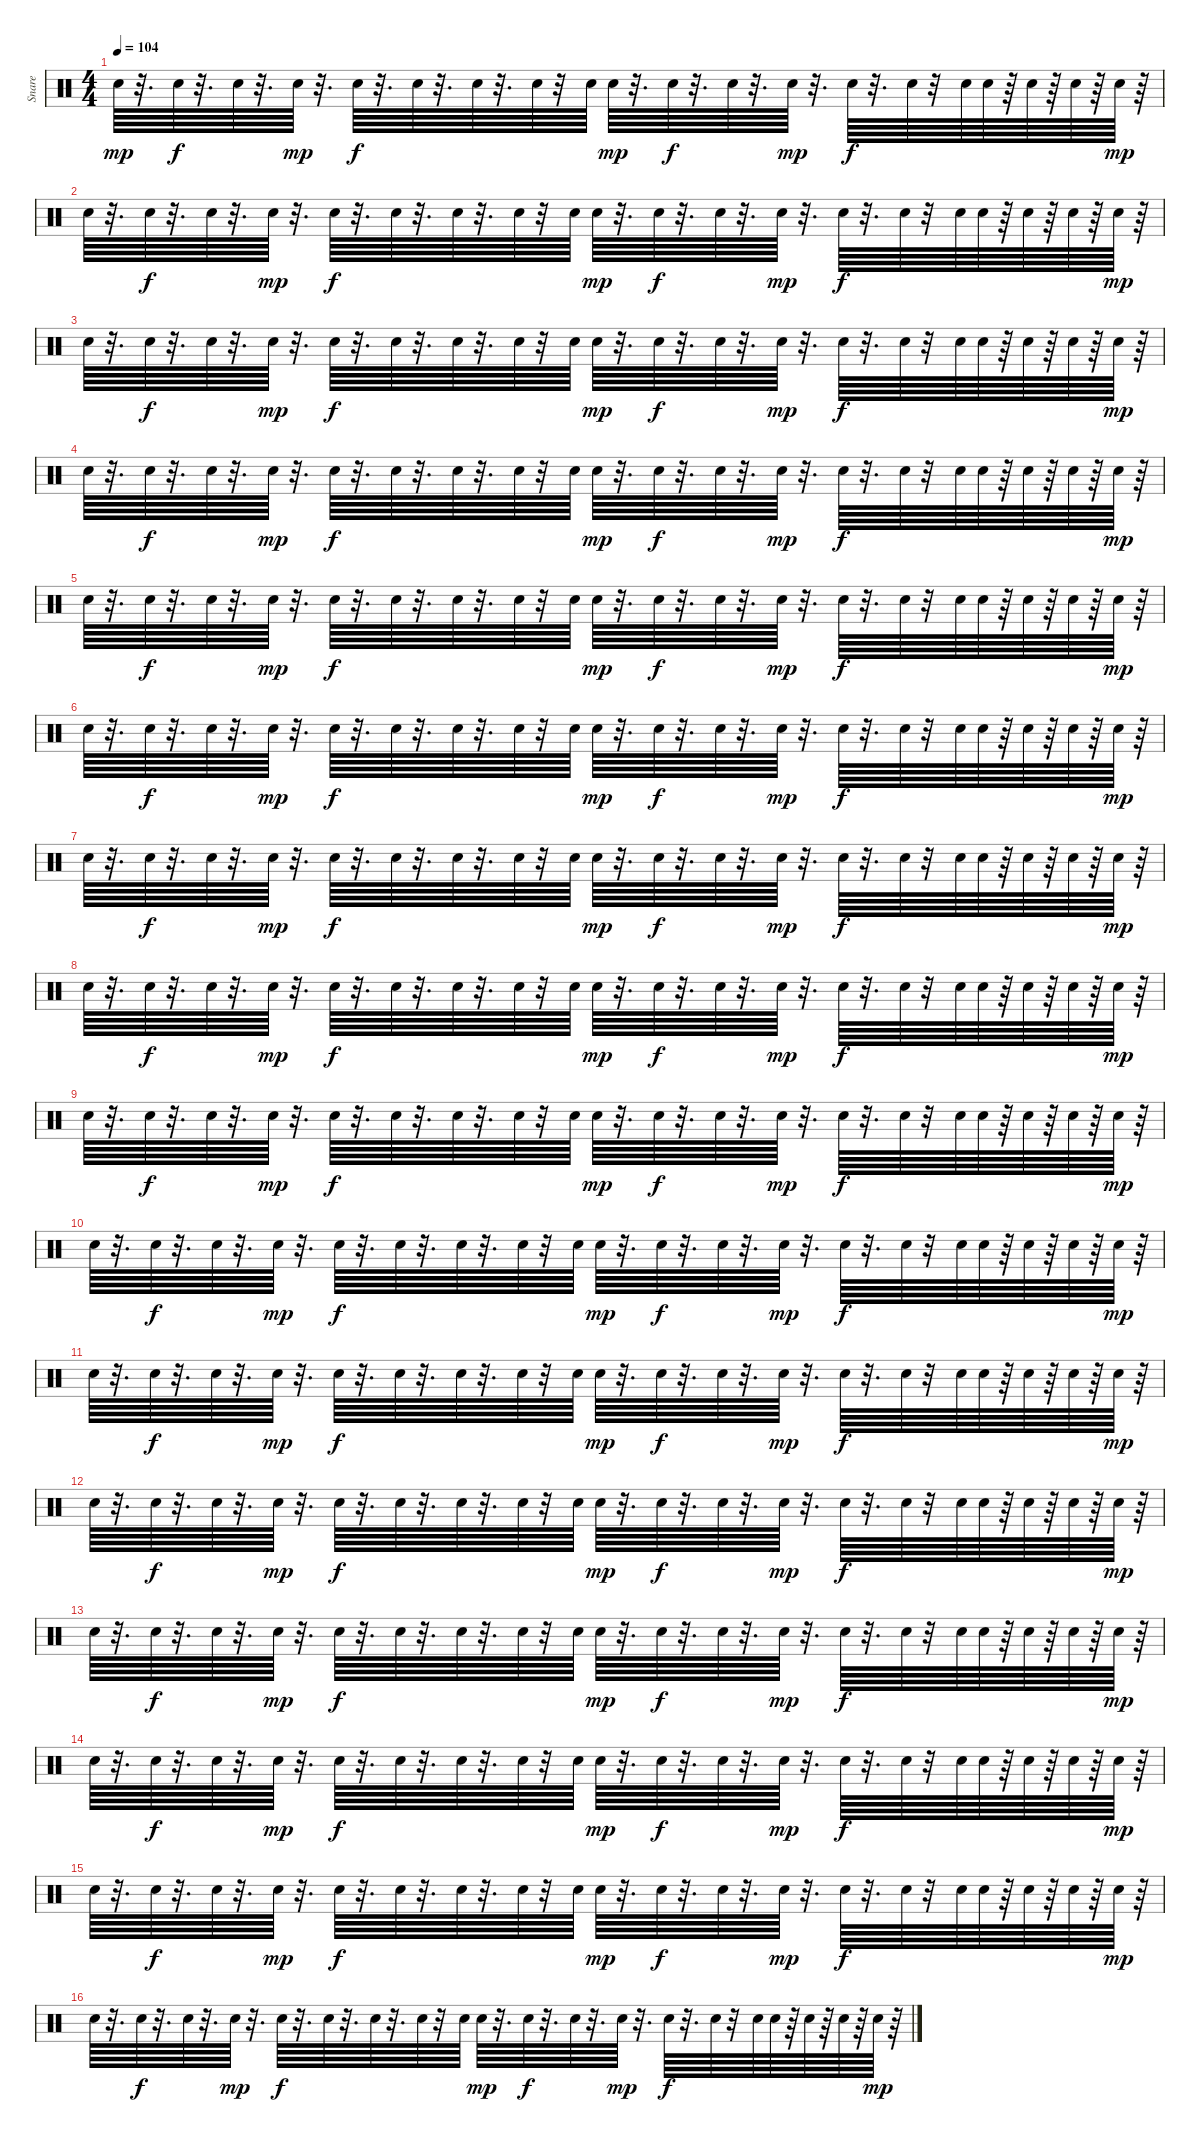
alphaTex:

\track ("Snare" "Snare") {instrument percussion}
\staff {score}
\articulation defaults
\ts (4 4)
\tempo 104
\clef neutral
\ks c "Snare (hit) 2".64{dy mp}
r.32{d} "Snare (hit) 2".64{dy f} r.32{d} "Snare (hit) 2".64 r.32{d} "Snare (hit) 2".64{dy mp} r.32{d} "Snare (hit) 2".64{dy f} r.32{d} "Snare (hit) 2".64 r.32{d} "Snare (hit) 2".64 r.32{d} "Snare (hit) 2".64 r.32 "Snare (hit) 2".64 "Snare (hit) 2".64{dy mp} r.32{d} "Snare (hit) 2".64{dy f} r.32{d} "Snare (hit) 2".64 r.32{d} "Snare (hit) 2".64{dy mp} r.32{d} "Snare (hit) 2".64{dy f} r.32{d} "Snare (hit) 2".64 r.32 "Snare (hit) 2".64 "Snare (hit) 2".64 r.64 "Snare (hit) 2".64 r.64 "Snare (hit) 2".64 r.64 "Snare (hit) 2".64{dy mp} r.64 |
"Snare (hit) 2".64 r.32{d} "Snare (hit) 2".64{dy f} r.32{d} "Snare (hit) 2".64 r.32{d} "Snare (hit) 2".64{dy mp} r.32{d} "Snare (hit) 2".64{dy f} r.32{d} "Snare (hit) 2".64 r.32{d} "Snare (hit) 2".64 r.32{d} "Snare (hit) 2".64 r.32 "Snare (hit) 2".64 "Snare (hit) 2".64{dy mp} r.32{d} "Snare (hit) 2".64{dy f} r.32{d} "Snare (hit) 2".64 r.32{d} "Snare (hit) 2".64{dy mp} r.32{d} "Snare (hit) 2".64{dy f} r.32{d} "Snare (hit) 2".64 r.32 "Snare (hit) 2".64 "Snare (hit) 2".64 r.64 "Snare (hit) 2".64 r.64 "Snare (hit) 2".64 r.64 "Snare (hit) 2".64{dy mp} r.64 |
"Snare (hit) 2".64 r.32{d} "Snare (hit) 2".64{dy f} r.32{d} "Snare (hit) 2".64 r.32{d} "Snare (hit) 2".64{dy mp} r.32{d} "Snare (hit) 2".64{dy f} r.32{d} "Snare (hit) 2".64 r.32{d} "Snare (hit) 2".64 r.32{d} "Snare (hit) 2".64 r.32 "Snare (hit) 2".64 "Snare (hit) 2".64{dy mp} r.32{d} "Snare (hit) 2".64{dy f} r.32{d} "Snare (hit) 2".64 r.32{d} "Snare (hit) 2".64{dy mp} r.32{d} "Snare (hit) 2".64{dy f} r.32{d} "Snare (hit) 2".64 r.32 "Snare (hit) 2".64 "Snare (hit) 2".64 r.64 "Snare (hit) 2".64 r.64 "Snare (hit) 2".64 r.64 "Snare (hit) 2".64{dy mp} r.64 |
"Snare (hit) 2".64 r.32{d} "Snare (hit) 2".64{dy f} r.32{d} "Snare (hit) 2".64 r.32{d} "Snare (hit) 2".64{dy mp} r.32{d} "Snare (hit) 2".64{dy f} r.32{d} "Snare (hit) 2".64 r.32{d} "Snare (hit) 2".64 r.32{d} "Snare (hit) 2".64 r.32 "Snare (hit) 2".64 "Snare (hit) 2".64{dy mp} r.32{d} "Snare (hit) 2".64{dy f} r.32{d} "Snare (hit) 2".64 r.32{d} "Snare (hit) 2".64{dy mp} r.32{d} "Snare (hit) 2".64{dy f} r.32{d} "Snare (hit) 2".64 r.32 "Snare (hit) 2".64 "Snare (hit) 2".64 r.64 "Snare (hit) 2".64 r.64 "Snare (hit) 2".64 r.64 "Snare (hit) 2".64{dy mp} r.64 |
"Snare (hit) 2".64 r.32{d} "Snare (hit) 2".64{dy f} r.32{d} "Snare (hit) 2".64 r.32{d} "Snare (hit) 2".64{dy mp} r.32{d} "Snare (hit) 2".64{dy f} r.32{d} "Snare (hit) 2".64 r.32{d} "Snare (hit) 2".64 r.32{d} "Snare (hit) 2".64 r.32 "Snare (hit) 2".64 "Snare (hit) 2".64{dy mp} r.32{d} "Snare (hit) 2".64{dy f} r.32{d} "Snare (hit) 2".64 r.32{d} "Snare (hit) 2".64{dy mp} r.32{d} "Snare (hit) 2".64{dy f} r.32{d} "Snare (hit) 2".64 r.32 "Snare (hit) 2".64 "Snare (hit) 2".64 r.64 "Snare (hit) 2".64 r.64 "Snare (hit) 2".64 r.64 "Snare (hit) 2".64{dy mp} r.64 |
"Snare (hit) 2".64 r.32{d} "Snare (hit) 2".64{dy f} r.32{d} "Snare (hit) 2".64 r.32{d} "Snare (hit) 2".64{dy mp} r.32{d} "Snare (hit) 2".64{dy f} r.32{d} "Snare (hit) 2".64 r.32{d} "Snare (hit) 2".64 r.32{d} "Snare (hit) 2".64 r.32 "Snare (hit) 2".64 "Snare (hit) 2".64{dy mp} r.32{d} "Snare (hit) 2".64{dy f} r.32{d} "Snare (hit) 2".64 r.32{d} "Snare (hit) 2".64{dy mp} r.32{d} "Snare (hit) 2".64{dy f} r.32{d} "Snare (hit) 2".64 r.32 "Snare (hit) 2".64 "Snare (hit) 2".64 r.64 "Snare (hit) 2".64 r.64 "Snare (hit) 2".64 r.64 "Snare (hit) 2".64{dy mp} r.64 |
"Snare (hit) 2".64 r.32{d} "Snare (hit) 2".64{dy f} r.32{d} "Snare (hit) 2".64 r.32{d} "Snare (hit) 2".64{dy mp} r.32{d} "Snare (hit) 2".64{dy f} r.32{d} "Snare (hit) 2".64 r.32{d} "Snare (hit) 2".64 r.32{d} "Snare (hit) 2".64 r.32 "Snare (hit) 2".64 "Snare (hit) 2".64{dy mp} r.32{d} "Snare (hit) 2".64{dy f} r.32{d} "Snare (hit) 2".64 r.32{d} "Snare (hit) 2".64{dy mp} r.32{d} "Snare (hit) 2".64{dy f} r.32{d} "Snare (hit) 2".64 r.32 "Snare (hit) 2".64 "Snare (hit) 2".64 r.64 "Snare (hit) 2".64 r.64 "Snare (hit) 2".64 r.64 "Snare (hit) 2".64{dy mp} r.64 |
"Snare (hit) 2".64 r.32{d} "Snare (hit) 2".64{dy f} r.32{d} "Snare (hit) 2".64 r.32{d} "Snare (hit) 2".64{dy mp} r.32{d} "Snare (hit) 2".64{dy f} r.32{d} "Snare (hit) 2".64 r.32{d} "Snare (hit) 2".64 r.32{d} "Snare (hit) 2".64 r.32 "Snare (hit) 2".64 "Snare (hit) 2".64{dy mp} r.32{d} "Snare (hit) 2".64{dy f} r.32{d} "Snare (hit) 2".64 r.32{d} "Snare (hit) 2".64{dy mp} r.32{d} "Snare (hit) 2".64{dy f} r.32{d} "Snare (hit) 2".64 r.32 "Snare (hit) 2".64 "Snare (hit) 2".64 r.64 "Snare (hit) 2".64 r.64 "Snare (hit) 2".64 r.64 "Snare (hit) 2".64{dy mp} r.64 |
"Snare (hit) 2".64 r.32{d} "Snare (hit) 2".64{dy f} r.32{d} "Snare (hit) 2".64 r.32{d} "Snare (hit) 2".64{dy mp} r.32{d} "Snare (hit) 2".64{dy f} r.32{d} "Snare (hit) 2".64 r.32{d} "Snare (hit) 2".64 r.32{d} "Snare (hit) 2".64 r.32 "Snare (hit) 2".64 "Snare (hit) 2".64{dy mp} r.32{d} "Snare (hit) 2".64{dy f} r.32{d} "Snare (hit) 2".64 r.32{d} "Snare (hit) 2".64{dy mp} r.32{d} "Snare (hit) 2".64{dy f} r.32{d} "Snare (hit) 2".64 r.32 "Snare (hit) 2".64 "Snare (hit) 2".64 r.64 "Snare (hit) 2".64 r.64 "Snare (hit) 2".64 r.64 "Snare (hit) 2".64{dy mp} r.64 |
"Snare (hit) 2".64 r.32{d} "Snare (hit) 2".64{dy f} r.32{d} "Snare (hit) 2".64 r.32{d} "Snare (hit) 2".64{dy mp} r.32{d} "Snare (hit) 2".64{dy f} r.32{d} "Snare (hit) 2".64 r.32{d} "Snare (hit) 2".64 r.32{d} "Snare (hit) 2".64 r.32 "Snare (hit) 2".64 "Snare (hit) 2".64{dy mp} r.32{d} "Snare (hit) 2".64{dy f} r.32{d} "Snare (hit) 2".64 r.32{d} "Snare (hit) 2".64{dy mp} r.32{d} "Snare (hit) 2".64{dy f} r.32{d} "Snare (hit) 2".64 r.32 "Snare (hit) 2".64 "Snare (hit) 2".64 r.64 "Snare (hit) 2".64 r.64 "Snare (hit) 2".64 r.64 "Snare (hit) 2".64{dy mp} r.64 |
"Snare (hit) 2".64 r.32{d} "Snare (hit) 2".64{dy f} r.32{d} "Snare (hit) 2".64 r.32{d} "Snare (hit) 2".64{dy mp} r.32{d} "Snare (hit) 2".64{dy f} r.32{d} "Snare (hit) 2".64 r.32{d} "Snare (hit) 2".64 r.32{d} "Snare (hit) 2".64 r.32 "Snare (hit) 2".64 "Snare (hit) 2".64{dy mp} r.32{d} "Snare (hit) 2".64{dy f} r.32{d} "Snare (hit) 2".64 r.32{d} "Snare (hit) 2".64{dy mp} r.32{d} "Snare (hit) 2".64{dy f} r.32{d} "Snare (hit) 2".64 r.32 "Snare (hit) 2".64 "Snare (hit) 2".64 r.64 "Snare (hit) 2".64 r.64 "Snare (hit) 2".64 r.64 "Snare (hit) 2".64{dy mp} r.64 |
"Snare (hit) 2".64 r.32{d} "Snare (hit) 2".64{dy f} r.32{d} "Snare (hit) 2".64 r.32{d} "Snare (hit) 2".64{dy mp} r.32{d} "Snare (hit) 2".64{dy f} r.32{d} "Snare (hit) 2".64 r.32{d} "Snare (hit) 2".64 r.32{d} "Snare (hit) 2".64 r.32 "Snare (hit) 2".64 "Snare (hit) 2".64{dy mp} r.32{d} "Snare (hit) 2".64{dy f} r.32{d} "Snare (hit) 2".64 r.32{d} "Snare (hit) 2".64{dy mp} r.32{d} "Snare (hit) 2".64{dy f} r.32{d} "Snare (hit) 2".64 r.32 "Snare (hit) 2".64 "Snare (hit) 2".64 r.64 "Snare (hit) 2".64 r.64 "Snare (hit) 2".64 r.64 "Snare (hit) 2".64{dy mp} r.64 |
"Snare (hit) 2".64 r.32{d} "Snare (hit) 2".64{dy f} r.32{d} "Snare (hit) 2".64 r.32{d} "Snare (hit) 2".64{dy mp} r.32{d} "Snare (hit) 2".64{dy f} r.32{d} "Snare (hit) 2".64 r.32{d} "Snare (hit) 2".64 r.32{d} "Snare (hit) 2".64 r.32 "Snare (hit) 2".64 "Snare (hit) 2".64{dy mp} r.32{d} "Snare (hit) 2".64{dy f} r.32{d} "Snare (hit) 2".64 r.32{d} "Snare (hit) 2".64{dy mp} r.32{d} "Snare (hit) 2".64{dy f} r.32{d} "Snare (hit) 2".64 r.32 "Snare (hit) 2".64 "Snare (hit) 2".64 r.64 "Snare (hit) 2".64 r.64 "Snare (hit) 2".64 r.64 "Snare (hit) 2".64{dy mp} r.64 |
"Snare (hit) 2".64 r.32{d} "Snare (hit) 2".64{dy f} r.32{d} "Snare (hit) 2".64 r.32{d} "Snare (hit) 2".64{dy mp} r.32{d} "Snare (hit) 2".64{dy f} r.32{d} "Snare (hit) 2".64 r.32{d} "Snare (hit) 2".64 r.32{d} "Snare (hit) 2".64 r.32 "Snare (hit) 2".64 "Snare (hit) 2".64{dy mp} r.32{d} "Snare (hit) 2".64{dy f} r.32{d} "Snare (hit) 2".64 r.32{d} "Snare (hit) 2".64{dy mp} r.32{d} "Snare (hit) 2".64{dy f} r.32{d} "Snare (hit) 2".64 r.32 "Snare (hit) 2".64 "Snare (hit) 2".64 r.64 "Snare (hit) 2".64 r.64 "Snare (hit) 2".64 r.64 "Snare (hit) 2".64{dy mp} r.64 |
"Snare (hit) 2".64 r.32{d} "Snare (hit) 2".64{dy f} r.32{d} "Snare (hit) 2".64 r.32{d} "Snare (hit) 2".64{dy mp} r.32{d} "Snare (hit) 2".64{dy f} r.32{d} "Snare (hit) 2".64 r.32{d} "Snare (hit) 2".64 r.32{d} "Snare (hit) 2".64 r.32 "Snare (hit) 2".64 "Snare (hit) 2".64{dy mp} r.32{d} "Snare (hit) 2".64{dy f} r.32{d} "Snare (hit) 2".64 r.32{d} "Snare (hit) 2".64{dy mp} r.32{d} "Snare (hit) 2".64{dy f} r.32{d} "Snare (hit) 2".64 r.32 "Snare (hit) 2".64 "Snare (hit) 2".64 r.64 "Snare (hit) 2".64 r.64 "Snare (hit) 2".64 r.64 "Snare (hit) 2".64{dy mp} r.64 |
"Snare (hit) 2".64 r.32{d} "Snare (hit) 2".64{dy f} r.32{d} "Snare (hit) 2".64 r.32{d} "Snare (hit) 2".64{dy mp} r.32{d} "Snare (hit) 2".64{dy f} r.32{d} "Snare (hit) 2".64 r.32{d} "Snare (hit) 2".64 r.32{d} "Snare (hit) 2".64 r.32 "Snare (hit) 2".64 "Snare (hit) 2".64{dy mp} r.32{d} "Snare (hit) 2".64{dy f} r.32{d} "Snare (hit) 2".64 r.32{d} "Snare (hit) 2".64{dy mp} r.32{d} "Snare (hit) 2".64{dy f} r.32{d} "Snare (hit) 2".64 r.32 "Snare (hit) 2".64 "Snare (hit) 2".64 r.64 "Snare (hit) 2".64 r.64 "Snare (hit) 2".64 r.64 "Snare (hit) 2".64{dy mp} r.64
